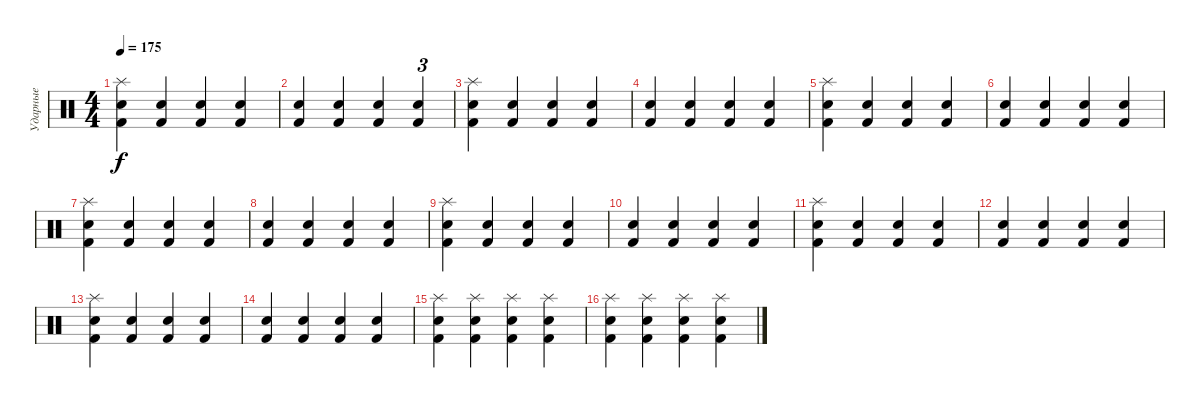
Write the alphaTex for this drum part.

\track ("Ударные" "Ударные") {instrument percussion}
\staff {score}
\articulation defaults
\ts (4 4)
\tempo 175
\clef neutral
\ks c
("Kick (hit) 2" "Snare (hit) 2" "Splash (hit)").4{dy f} ("Kick (hit) 2" "Snare (hit) 2").4 ("Kick (hit) 2" "Snare (hit) 2").4 ("Kick (hit) 2" "Snare (hit) 2").4 |
("Kick (hit) 2" "Snare (hit) 2").4 ("Kick (hit) 2" "Snare (hit) 2").4 ("Kick (hit) 2" "Snare (hit) 2").4 ("Kick (hit) 2" "Snare (hit) 2").4{tu (3 2)} |
("Kick (hit) 2" "Snare (hit) 2" "Splash (hit)").4 ("Kick (hit) 2" "Snare (hit) 2").4 ("Kick (hit) 2" "Snare (hit) 2").4 ("Kick (hit) 2" "Snare (hit) 2").4 |
("Kick (hit) 2" "Snare (hit) 2").4 ("Kick (hit) 2" "Snare (hit) 2").4 ("Kick (hit) 2" "Snare (hit) 2").4 ("Kick (hit) 2" "Snare (hit) 2").4 |
("Kick (hit) 2" "Snare (hit) 2" "Splash (hit)").4 ("Kick (hit) 2" "Snare (hit) 2").4 ("Kick (hit) 2" "Snare (hit) 2").4 ("Kick (hit) 2" "Snare (hit) 2").4 |
("Kick (hit) 2" "Snare (hit) 2").4 ("Kick (hit) 2" "Snare (hit) 2").4 ("Kick (hit) 2" "Snare (hit) 2").4 ("Kick (hit) 2" "Snare (hit) 2").4 |
("Kick (hit) 2" "Snare (hit) 2" "Splash (hit)").4 ("Kick (hit) 2" "Snare (hit) 2").4 ("Kick (hit) 2" "Snare (hit) 2").4 ("Kick (hit) 2" "Snare (hit) 2").4 |
("Kick (hit) 2" "Snare (hit) 2").4 ("Kick (hit) 2" "Snare (hit) 2").4 ("Kick (hit) 2" "Snare (hit) 2").4 ("Kick (hit) 2" "Snare (hit) 2").4 |
("Kick (hit) 2" "Snare (hit) 2" "Splash (hit)").4 ("Kick (hit) 2" "Snare (hit) 2").4 ("Kick (hit) 2" "Snare (hit) 2").4 ("Kick (hit) 2" "Snare (hit) 2").4 |
("Kick (hit) 2" "Snare (hit) 2").4 ("Kick (hit) 2" "Snare (hit) 2").4 ("Kick (hit) 2" "Snare (hit) 2").4 ("Kick (hit) 2" "Snare (hit) 2").4 |
("Kick (hit) 2" "Snare (hit) 2" "Splash (hit)").4 ("Kick (hit) 2" "Snare (hit) 2").4 ("Kick (hit) 2" "Snare (hit) 2").4 ("Kick (hit) 2" "Snare (hit) 2").4 |
("Kick (hit) 2" "Snare (hit) 2").4 ("Kick (hit) 2" "Snare (hit) 2").4 ("Kick (hit) 2" "Snare (hit) 2").4 ("Kick (hit) 2" "Snare (hit) 2").4 |
("Kick (hit) 2" "Snare (hit) 2" "Splash (hit)").4 ("Kick (hit) 2" "Snare (hit) 2").4 ("Kick (hit) 2" "Snare (hit) 2").4 ("Kick (hit) 2" "Snare (hit) 2").4 |
("Kick (hit) 2" "Snare (hit) 2").4 ("Kick (hit) 2" "Snare (hit) 2").4 ("Kick (hit) 2" "Snare (hit) 2").4 ("Kick (hit) 2" "Snare (hit) 2").4 |
("Kick (hit) 2" "Snare (hit) 2" "Splash (hit)").4 ("Kick (hit) 2" "Splash (hit)" "Snare (hit) 2").4 ("Kick (hit) 2" "Splash (hit)" "Snare (hit) 2").4 ("Kick (hit) 2" "Splash (hit)" "Snare (hit) 2").4 |
("Kick (hit) 2" "Splash (hit)" "Snare (hit) 2").4 ("Kick (hit) 2" "Splash (hit)" "Snare (hit) 2").4 ("Kick (hit) 2" "Splash (hit)" "Snare (hit) 2").4 ("Kick (hit) 2" "Splash (hit)" "Snare (hit) 2").4
